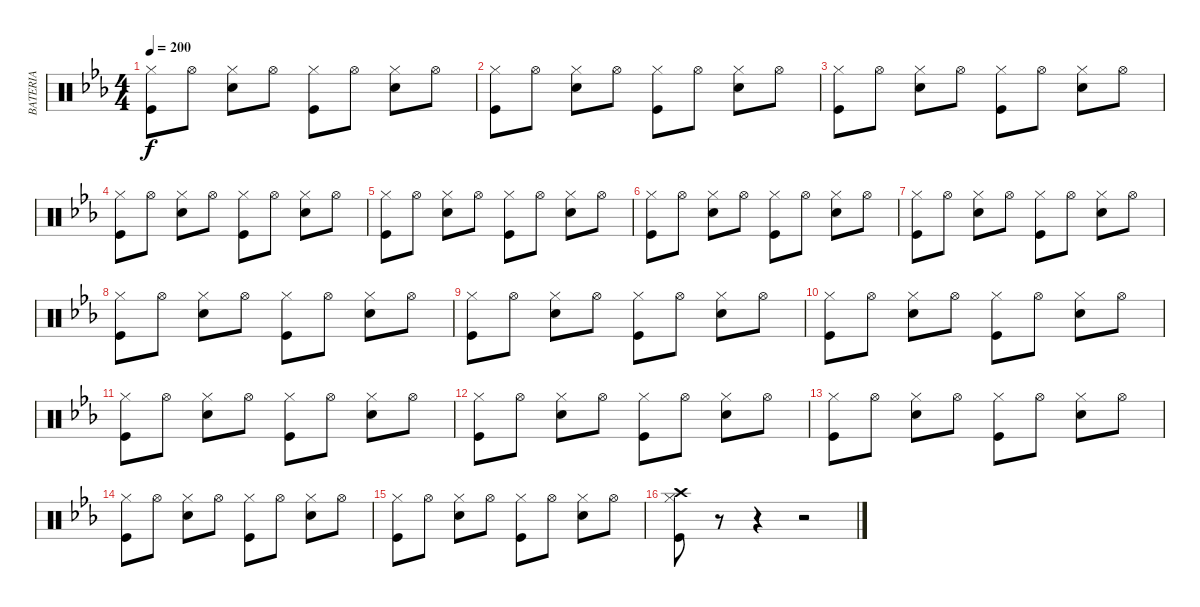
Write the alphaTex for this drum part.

\track ("BATERIA" "BATERIA") {instrument percussion}
\staff {score}
\articulation defaults
\ts (4 4)
\tempo 200
\clef neutral
\ks cminor
("Kick (hit)" "Hi-Hat (closed)").8{dy f} "Hi-Hat (open)".8 ("Hi-Hat (closed)" "Snare (hit) 2").8 "Hi-Hat (open)".8 ("Kick (hit)" "Hi-Hat (closed)").8 "Hi-Hat (open)".8 ("Hi-Hat (closed)" "Snare (hit) 2").8 "Hi-Hat (open)".8 |
("Kick (hit)" "Hi-Hat (closed)").8 "Hi-Hat (open)".8 ("Hi-Hat (closed)" "Snare (hit) 2").8 "Hi-Hat (open)".8 ("Kick (hit)" "Hi-Hat (closed)").8 "Hi-Hat (open)".8 ("Hi-Hat (closed)" "Snare (hit) 2").8 "Hi-Hat (open)".8 |
("Kick (hit)" "Hi-Hat (closed)").8 "Hi-Hat (open)".8 ("Hi-Hat (closed)" "Snare (hit) 2").8 "Hi-Hat (open)".8 ("Kick (hit)" "Hi-Hat (closed)").8 "Hi-Hat (open)".8 ("Hi-Hat (closed)" "Snare (hit) 2").8 "Hi-Hat (open)".8 |
("Kick (hit)" "Hi-Hat (closed)").8 "Hi-Hat (open)".8 ("Hi-Hat (closed)" "Snare (hit) 2").8 "Hi-Hat (open)".8 ("Kick (hit)" "Hi-Hat (closed)").8 "Hi-Hat (open)".8 ("Hi-Hat (closed)" "Snare (hit) 2").8 "Hi-Hat (open)".8 |
("Kick (hit)" "Hi-Hat (closed)").8 "Hi-Hat (open)".8 ("Hi-Hat (closed)" "Snare (hit) 2").8 "Hi-Hat (open)".8 ("Kick (hit)" "Hi-Hat (closed)").8 "Hi-Hat (open)".8 ("Hi-Hat (closed)" "Snare (hit) 2").8 "Hi-Hat (open)".8 |
("Kick (hit)" "Hi-Hat (closed)").8 "Hi-Hat (open)".8 ("Hi-Hat (closed)" "Snare (hit) 2").8 "Hi-Hat (open)".8 ("Kick (hit)" "Hi-Hat (closed)").8 "Hi-Hat (open)".8 ("Hi-Hat (closed)" "Snare (hit) 2").8 "Hi-Hat (open)".8 |
("Kick (hit)" "Hi-Hat (closed)").8 "Hi-Hat (open)".8 ("Hi-Hat (closed)" "Snare (hit) 2").8 "Hi-Hat (open)".8 ("Kick (hit)" "Hi-Hat (closed)").8 "Hi-Hat (open)".8 ("Hi-Hat (closed)" "Snare (hit) 2").8 "Hi-Hat (open)".8 |
("Kick (hit)" "Hi-Hat (closed)").8 "Hi-Hat (open)".8 ("Hi-Hat (closed)" "Snare (hit) 2").8 "Hi-Hat (open)".8 ("Kick (hit)" "Hi-Hat (closed)").8 "Hi-Hat (open)".8 ("Hi-Hat (closed)" "Snare (hit) 2").8 "Hi-Hat (open)".8 |
("Kick (hit)" "Hi-Hat (closed)").8 "Hi-Hat (open)".8 ("Hi-Hat (closed)" "Snare (hit) 2").8 "Hi-Hat (open)".8 ("Kick (hit)" "Hi-Hat (closed)").8 "Hi-Hat (open)".8 ("Hi-Hat (closed)" "Snare (hit) 2").8 "Hi-Hat (open)".8 |
("Kick (hit)" "Hi-Hat (closed)").8 "Hi-Hat (open)".8 ("Hi-Hat (closed)" "Snare (hit) 2").8 "Hi-Hat (open)".8 ("Kick (hit)" "Hi-Hat (closed)").8 "Hi-Hat (open)".8 ("Hi-Hat (closed)" "Snare (hit) 2").8 "Hi-Hat (open)".8 |
("Kick (hit)" "Hi-Hat (closed)").8 "Hi-Hat (open)".8 ("Hi-Hat (closed)" "Snare (hit) 2").8 "Hi-Hat (open)".8 ("Kick (hit)" "Hi-Hat (closed)").8 "Hi-Hat (open)".8 ("Hi-Hat (closed)" "Snare (hit) 2").8 "Hi-Hat (open)".8 |
("Kick (hit)" "Hi-Hat (closed)").8 "Hi-Hat (open)".8 ("Hi-Hat (closed)" "Snare (hit) 2").8 "Hi-Hat (open)".8 ("Kick (hit)" "Hi-Hat (closed)").8 "Hi-Hat (open)".8 ("Hi-Hat (closed)" "Snare (hit) 2").8 "Hi-Hat (open)".8 |
("Kick (hit)" "Hi-Hat (closed)").8 "Hi-Hat (open)".8 ("Hi-Hat (closed)" "Snare (hit) 2").8 "Hi-Hat (open)".8 ("Kick (hit)" "Hi-Hat (closed)").8 "Hi-Hat (open)".8 ("Hi-Hat (closed)" "Snare (hit) 2").8 "Hi-Hat (open)".8 |
("Kick (hit)" "Hi-Hat (closed)").8 "Hi-Hat (open)".8 ("Hi-Hat (closed)" "Snare (hit) 2").8 "Hi-Hat (open)".8 ("Kick (hit)" "Hi-Hat (closed)").8 "Hi-Hat (open)".8 ("Hi-Hat (closed)" "Snare (hit) 2").8 "Hi-Hat (open)".8 |
("Kick (hit)" "Hi-Hat (closed)").8 "Hi-Hat (open)".8 ("Hi-Hat (closed)" "Snare (hit) 2").8 "Hi-Hat (open)".8 ("Kick (hit)" "Hi-Hat (closed)").8 "Hi-Hat (open)".8 ("Hi-Hat (closed)" "Snare (hit) 2").8 "Hi-Hat (open)".8 |
("Kick (hit)" "Hi-Hat (closed)" "Crash high (hit)").8 r.8 r.4 r.2
